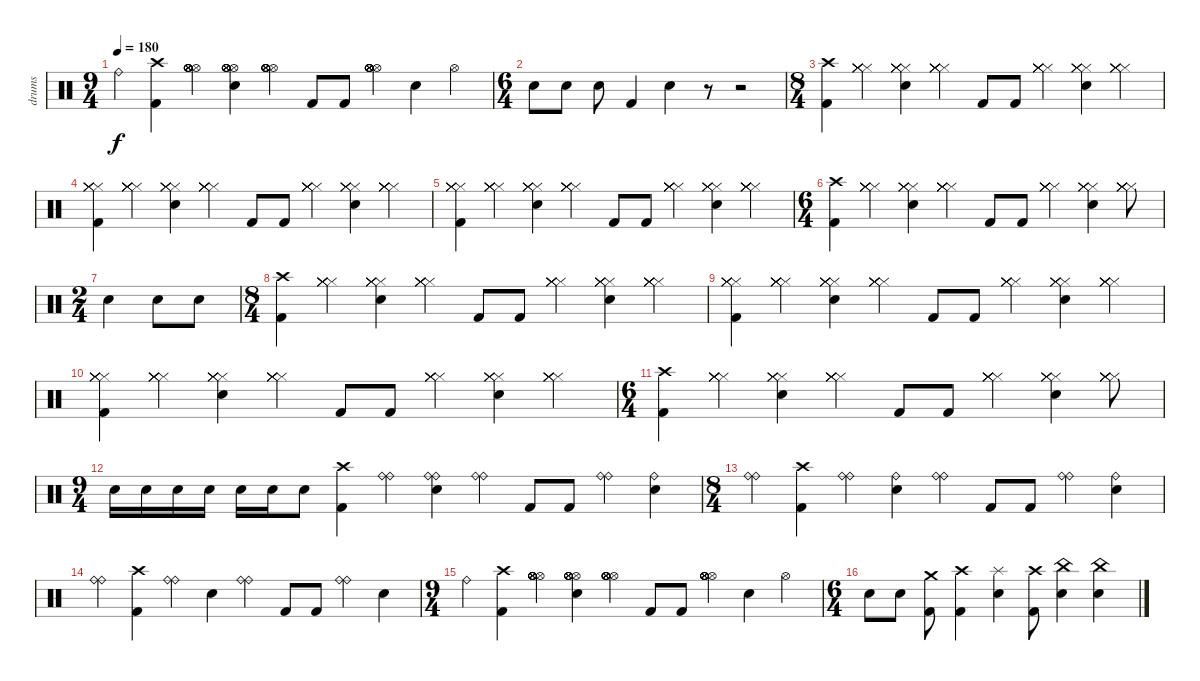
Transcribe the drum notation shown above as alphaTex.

\track ("drums" "drums") {instrument percussion}
\staff {score}
\articulation defaults
\ts (9 4)
\tempo 180
\clef neutral
\ks c "Ride (bell)".4{dy f}
("Crash high (hit)" "Kick (hit) 2").4 ("Hi-Hat (open)" "Hi-Hat (open)" "Hi-Hat (open)" "Hi-Hat (open)" "Hi-Hat (open)" "Hi-Hat (open)").4 ("Snare (hit) 2" "Hi-Hat (open)" "Hi-Hat (open)" "Hi-Hat (open)" "Hi-Hat (open)" "Hi-Hat (open)").4 ("Hi-Hat (open)" "Hi-Hat (open)" "Hi-Hat (open)" "Hi-Hat (open)" "Hi-Hat (open)" "Hi-Hat (open)").4 "Kick (hit) 2".8 "Kick (hit) 2".8 ("Hi-Hat (open)" "Hi-Hat (open)" "Hi-Hat (open)" "Hi-Hat (open)" "Hi-Hat (open)" "Hi-Hat (open)").4 "Snare (hit) 2".4 "Hi-Hat (open)".4 |
\ts (6 4)
"Snare (hit) 2".8 "Snare (hit) 2".8 "Snare (hit) 2".8 "Kick (hit) 2".4 "Snare (hit) 2".4 r.8 r.2 |
\ts (8 4)
("Crash high (hit)" "Kick (hit) 2").4 ("Hi-Hat (closed)" "Hi-Hat (closed)" "Hi-Hat (closed)" "Hi-Hat (closed)" "Hi-Hat (closed)" "Hi-Hat (closed)").4 ("Snare (hit) 2" "Hi-Hat (closed)" "Hi-Hat (closed)" "Hi-Hat (closed)" "Hi-Hat (closed)" "Hi-Hat (closed)").4 ("Hi-Hat (closed)" "Hi-Hat (closed)" "Hi-Hat (closed)" "Hi-Hat (closed)" "Hi-Hat (closed)" "Hi-Hat (closed)").4 "Kick (hit) 2".8 "Kick (hit) 2".8 ("Hi-Hat (closed)" "Hi-Hat (closed)" "Hi-Hat (closed)" "Hi-Hat (closed)" "Hi-Hat (closed)" "Hi-Hat (closed)").4 ("Snare (hit) 2" "Hi-Hat (closed)" "Hi-Hat (closed)" "Hi-Hat (closed)" "Hi-Hat (closed)" "Hi-Hat (closed)").4 ("Hi-Hat (closed)" "Hi-Hat (closed)" "Hi-Hat (closed)" "Hi-Hat (closed)" "Hi-Hat (closed)" "Hi-Hat (closed)").4 |
("Kick (hit) 2" "Hi-Hat (closed)" "Hi-Hat (closed)" "Hi-Hat (closed)" "Hi-Hat (closed)" "Hi-Hat (closed)").4 ("Hi-Hat (closed)" "Hi-Hat (closed)" "Hi-Hat (closed)" "Hi-Hat (closed)" "Hi-Hat (closed)" "Hi-Hat (closed)").4 ("Snare (hit) 2" "Hi-Hat (closed)" "Hi-Hat (closed)" "Hi-Hat (closed)" "Hi-Hat (closed)" "Hi-Hat (closed)").4 ("Hi-Hat (closed)" "Hi-Hat (closed)" "Hi-Hat (closed)" "Hi-Hat (closed)" "Hi-Hat (closed)" "Hi-Hat (closed)").4 "Kick (hit) 2".8 "Kick (hit) 2".8 ("Hi-Hat (closed)" "Hi-Hat (closed)" "Hi-Hat (closed)" "Hi-Hat (closed)" "Hi-Hat (closed)" "Hi-Hat (closed)").4 ("Snare (hit) 2" "Hi-Hat (closed)" "Hi-Hat (closed)" "Hi-Hat (closed)" "Hi-Hat (closed)" "Hi-Hat (closed)").4 ("Hi-Hat (closed)" "Hi-Hat (closed)" "Hi-Hat (closed)" "Hi-Hat (closed)" "Hi-Hat (closed)" "Hi-Hat (closed)").4 |
("Kick (hit) 2" "Hi-Hat (closed)" "Hi-Hat (closed)" "Hi-Hat (closed)" "Hi-Hat (closed)" "Hi-Hat (closed)").4 ("Hi-Hat (closed)" "Hi-Hat (closed)" "Hi-Hat (closed)" "Hi-Hat (closed)" "Hi-Hat (closed)" "Hi-Hat (closed)").4 ("Snare (hit) 2" "Hi-Hat (closed)" "Hi-Hat (closed)" "Hi-Hat (closed)" "Hi-Hat (closed)" "Hi-Hat (closed)").4 ("Hi-Hat (closed)" "Hi-Hat (closed)" "Hi-Hat (closed)" "Hi-Hat (closed)" "Hi-Hat (closed)" "Hi-Hat (closed)").4 "Kick (hit) 2".8 "Kick (hit) 2".8 ("Hi-Hat (closed)" "Hi-Hat (closed)" "Hi-Hat (closed)" "Hi-Hat (closed)" "Hi-Hat (closed)" "Hi-Hat (closed)").4 ("Snare (hit) 2" "Hi-Hat (closed)" "Hi-Hat (closed)" "Hi-Hat (closed)" "Hi-Hat (closed)" "Hi-Hat (closed)").4 ("Hi-Hat (closed)" "Hi-Hat (closed)" "Hi-Hat (closed)" "Hi-Hat (closed)" "Hi-Hat (closed)" "Hi-Hat (closed)").4 |
\ts (6 4)
("Kick (hit) 2" "Crash high (hit)").4 ("Hi-Hat (closed)" "Hi-Hat (closed)" "Hi-Hat (closed)" "Hi-Hat (closed)" "Hi-Hat (closed)" "Hi-Hat (closed)").4 ("Snare (hit) 2" "Hi-Hat (closed)" "Hi-Hat (closed)" "Hi-Hat (closed)" "Hi-Hat (closed)" "Hi-Hat (closed)").4 ("Hi-Hat (closed)" "Hi-Hat (closed)" "Hi-Hat (closed)" "Hi-Hat (closed)" "Hi-Hat (closed)" "Hi-Hat (closed)").4 "Kick (hit) 2".8 "Kick (hit) 2".8 ("Hi-Hat (closed)" "Hi-Hat (closed)" "Hi-Hat (closed)" "Hi-Hat (closed)" "Hi-Hat (closed)" "Hi-Hat (closed)").4 ("Snare (hit) 2" "Hi-Hat (closed)" "Hi-Hat (closed)" "Hi-Hat (closed)" "Hi-Hat (closed)" "Hi-Hat (closed)").4 ("Hi-Hat (closed)" "Hi-Hat (closed)" "Hi-Hat (closed)" "Hi-Hat (closed)" "Hi-Hat (closed)" "Hi-Hat (closed)").8 |
\ts (2 4)
"Snare (hit) 2".4 "Snare (hit) 2".8 "Snare (hit) 2".8 |
\ts (8 4)
("Crash high (hit)" "Kick (hit) 2").4 ("Hi-Hat (closed)" "Hi-Hat (closed)" "Hi-Hat (closed)" "Hi-Hat (closed)" "Hi-Hat (closed)" "Hi-Hat (closed)").4 ("Snare (hit) 2" "Hi-Hat (closed)" "Hi-Hat (closed)" "Hi-Hat (closed)" "Hi-Hat (closed)" "Hi-Hat (closed)").4 ("Hi-Hat (closed)" "Hi-Hat (closed)" "Hi-Hat (closed)" "Hi-Hat (closed)" "Hi-Hat (closed)" "Hi-Hat (closed)").4 "Kick (hit) 2".8 "Kick (hit) 2".8 ("Hi-Hat (closed)" "Hi-Hat (closed)" "Hi-Hat (closed)" "Hi-Hat (closed)" "Hi-Hat (closed)" "Hi-Hat (closed)").4 ("Snare (hit) 2" "Hi-Hat (closed)" "Hi-Hat (closed)" "Hi-Hat (closed)" "Hi-Hat (closed)" "Hi-Hat (closed)").4 ("Hi-Hat (closed)" "Hi-Hat (closed)" "Hi-Hat (closed)" "Hi-Hat (closed)" "Hi-Hat (closed)" "Hi-Hat (closed)").4 |
("Kick (hit) 2" "Hi-Hat (closed)" "Hi-Hat (closed)" "Hi-Hat (closed)" "Hi-Hat (closed)" "Hi-Hat (closed)").4 ("Hi-Hat (closed)" "Hi-Hat (closed)" "Hi-Hat (closed)" "Hi-Hat (closed)" "Hi-Hat (closed)" "Hi-Hat (closed)").4 ("Snare (hit) 2" "Hi-Hat (closed)" "Hi-Hat (closed)" "Hi-Hat (closed)" "Hi-Hat (closed)" "Hi-Hat (closed)").4 ("Hi-Hat (closed)" "Hi-Hat (closed)" "Hi-Hat (closed)" "Hi-Hat (closed)" "Hi-Hat (closed)" "Hi-Hat (closed)").4 "Kick (hit) 2".8 "Kick (hit) 2".8 ("Hi-Hat (closed)" "Hi-Hat (closed)" "Hi-Hat (closed)" "Hi-Hat (closed)" "Hi-Hat (closed)" "Hi-Hat (closed)").4 ("Snare (hit) 2" "Hi-Hat (closed)" "Hi-Hat (closed)" "Hi-Hat (closed)" "Hi-Hat (closed)" "Hi-Hat (closed)").4 ("Hi-Hat (closed)" "Hi-Hat (closed)" "Hi-Hat (closed)" "Hi-Hat (closed)" "Hi-Hat (closed)" "Hi-Hat (closed)").4 |
("Kick (hit) 2" "Hi-Hat (closed)" "Hi-Hat (closed)" "Hi-Hat (closed)" "Hi-Hat (closed)" "Hi-Hat (closed)").4 ("Hi-Hat (closed)" "Hi-Hat (closed)" "Hi-Hat (closed)" "Hi-Hat (closed)" "Hi-Hat (closed)" "Hi-Hat (closed)").4 ("Snare (hit) 2" "Hi-Hat (closed)" "Hi-Hat (closed)" "Hi-Hat (closed)" "Hi-Hat (closed)" "Hi-Hat (closed)").4 ("Hi-Hat (closed)" "Hi-Hat (closed)" "Hi-Hat (closed)" "Hi-Hat (closed)" "Hi-Hat (closed)" "Hi-Hat (closed)").4 "Kick (hit) 2".8 "Kick (hit) 2".8 ("Hi-Hat (closed)" "Hi-Hat (closed)" "Hi-Hat (closed)" "Hi-Hat (closed)" "Hi-Hat (closed)" "Hi-Hat (closed)").4 ("Snare (hit) 2" "Hi-Hat (closed)" "Hi-Hat (closed)" "Hi-Hat (closed)" "Hi-Hat (closed)" "Hi-Hat (closed)").4 ("Hi-Hat (closed)" "Hi-Hat (closed)" "Hi-Hat (closed)" "Hi-Hat (closed)" "Hi-Hat (closed)" "Hi-Hat (closed)").4 |
\ts (6 4)
("Kick (hit) 2" "Crash high (hit)").4 ("Hi-Hat (closed)" "Hi-Hat (closed)" "Hi-Hat (closed)" "Hi-Hat (closed)" "Hi-Hat (closed)" "Hi-Hat (closed)").4 ("Snare (hit) 2" "Hi-Hat (closed)" "Hi-Hat (closed)" "Hi-Hat (closed)" "Hi-Hat (closed)" "Hi-Hat (closed)").4 ("Hi-Hat (closed)" "Hi-Hat (closed)" "Hi-Hat (closed)" "Hi-Hat (closed)" "Hi-Hat (closed)" "Hi-Hat (closed)").4 "Kick (hit) 2".8 "Kick (hit) 2".8 ("Hi-Hat (closed)" "Hi-Hat (closed)" "Hi-Hat (closed)" "Hi-Hat (closed)" "Hi-Hat (closed)" "Hi-Hat (closed)").4 ("Snare (hit) 2" "Hi-Hat (closed)" "Hi-Hat (closed)" "Hi-Hat (closed)" "Hi-Hat (closed)" "Hi-Hat (closed)").4 ("Hi-Hat (closed)" "Hi-Hat (closed)" "Hi-Hat (closed)" "Hi-Hat (closed)" "Hi-Hat (closed)" "Hi-Hat (closed)").8 |
\ts (9 4)
"Snare (hit) 2".16 "Snare (hit) 2".16 "Snare (hit) 2".16 "Snare (hit) 2".16 "Snare (hit) 2".16 "Snare (hit) 2".16 "Snare (hit) 2".8 ("Crash high (hit)" "Kick (hit) 2").4 ("Ride (bell)" "Ride (bell)").4 ("Snare (hit) 2" "Ride (bell)" "Ride (bell)").4 ("Ride (bell)" "Ride (bell)").4 "Kick (hit) 2".8 "Kick (hit) 2".8 ("Ride (bell)" "Ride (bell)").4 ("Snare (hit) 2" "Ride (bell)").4 |
\ts (8 4)
("Ride (bell)" "Ride (bell)").4 ("Crash high (hit)" "Kick (hit) 2").4 ("Ride (bell)" "Ride (bell)").4 ("Snare (hit) 2" "Ride (bell)").4 ("Ride (bell)" "Ride (bell)").4 "Kick (hit) 2".8 "Kick (hit) 2".8 ("Ride (bell)" "Ride (bell)").4 ("Snare (hit) 2" "Ride (bell)").4 |
("Ride (bell)" "Ride (bell)").4 ("Crash high (hit)" "Kick (hit) 2").4 ("Ride (bell)" "Ride (bell)").4 "Snare (hit) 2".4 ("Ride (bell)" "Ride (bell)").4 "Kick (hit) 2".8 "Kick (hit) 2".8 ("Ride (bell)" "Ride (bell)").4 "Snare (hit) 2".4 |
\ts (9 4)
"Ride (bell)".4 ("Crash high (hit)" "Kick (hit) 2").4 ("Hi-Hat (open)" "Hi-Hat (open)" "Hi-Hat (open)" "Hi-Hat (open)" "Hi-Hat (open)" "Hi-Hat (open)").4 ("Snare (hit) 2" "Hi-Hat (open)" "Hi-Hat (open)" "Hi-Hat (open)" "Hi-Hat (open)" "Hi-Hat (open)").4 ("Hi-Hat (open)" "Hi-Hat (open)" "Hi-Hat (open)" "Hi-Hat (open)" "Hi-Hat (open)" "Hi-Hat (open)").4 "Kick (hit) 2".8 "Kick (hit) 2".8 ("Hi-Hat (open)" "Hi-Hat (open)" "Hi-Hat (open)" "Hi-Hat (open)" "Hi-Hat (open)" "Hi-Hat (open)").4 "Snare (hit) 2".4 "Hi-Hat (open)".4 |
\ts (6 4)
"Snare (hit) 2".8 "Snare (hit) 2".8 ("Kick (hit) 2" "Crash medium (hit)").8 ("Kick (hit) 2" "Crash high (hit)").4 ("Snare (hit) 2" "Splash (hit)").4 ("Kick (hit) 2" "Crash high (hit)").8 ("Snare (hit) 2" "China (hit)").4 ("Snare (hit) 2" "China (hit)").4
